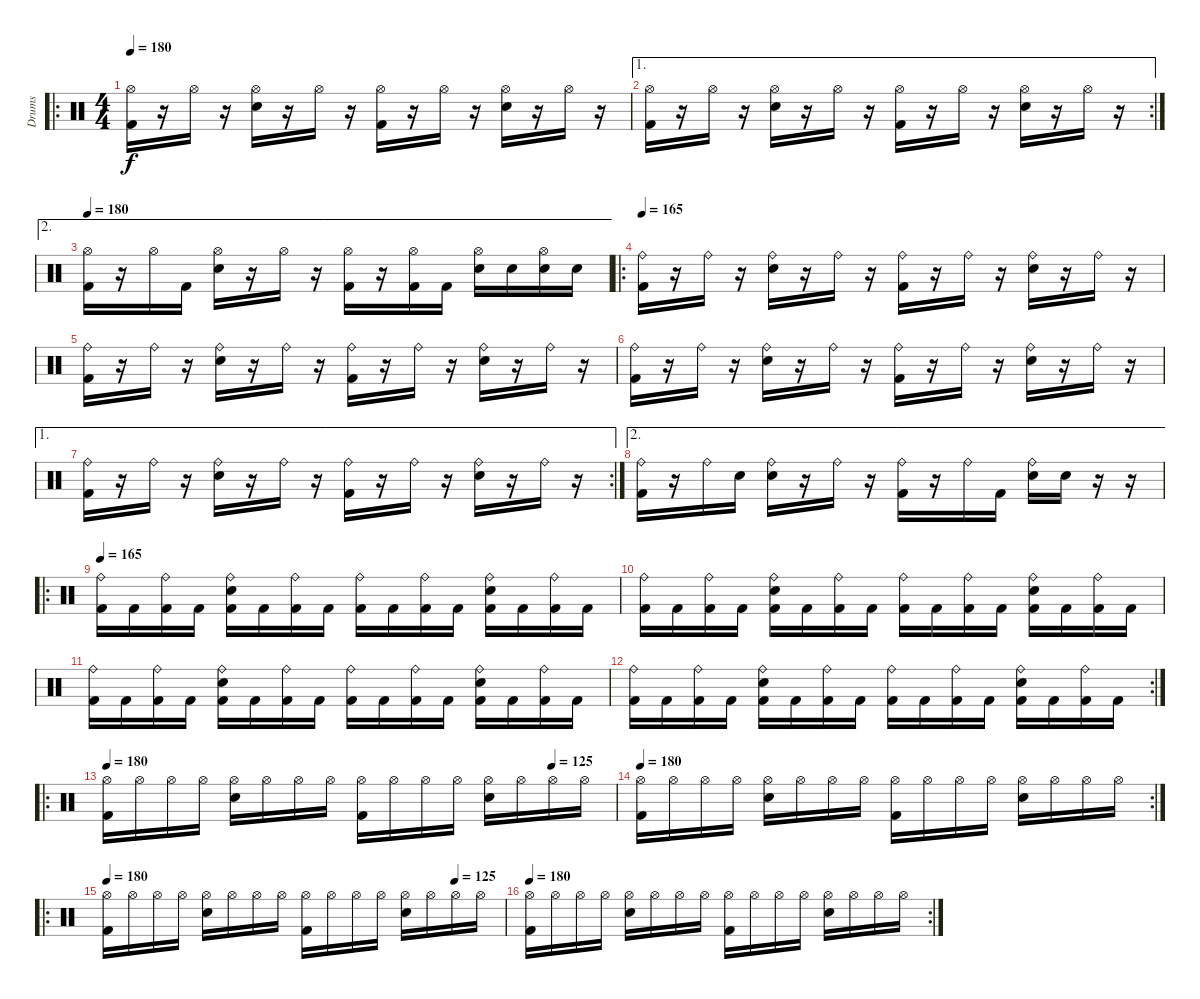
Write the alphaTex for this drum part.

\track ("Drums" "Drums") {instrument percussion}
\staff {score}
\articulation defaults
\ro
\ts (4 4)
\tempo 180
\clef neutral
\ks c
("Hi-Hat (open)" "Kick (hit) 2").16{dy f} r.16 "Hi-Hat (open)".16 r.16 ("Hi-Hat (open)" "Snare (hit) 2").16 r.16 "Hi-Hat (open)".16 r.16 ("Hi-Hat (open)" "Kick (hit) 2").16 r.16 "Hi-Hat (open)".16 r.16 ("Hi-Hat (open)" "Snare (hit) 2").16 r.16 "Hi-Hat (open)".16 r.16 |
\ae 1
\rc 2
("Hi-Hat (open)" "Kick (hit) 2").16 r.16 "Hi-Hat (open)".16 r.16 ("Hi-Hat (open)" "Snare (hit) 2").16 r.16 "Hi-Hat (open)".16 r.16 ("Hi-Hat (open)" "Kick (hit) 2").16 r.16 "Hi-Hat (open)".16 r.16 ("Hi-Hat (open)" "Snare (hit) 2").16 r.16 "Hi-Hat (open)".16 r.16 |
\ae 2
\tempo 180
("Hi-Hat (open)" "Kick (hit) 2").16 r.16 "Hi-Hat (open)".16 "Kick (hit) 2".16 ("Hi-Hat (open)" "Snare (hit) 2").16 r.16 "Hi-Hat (open)".16 r.16 ("Hi-Hat (open)" "Kick (hit) 2").16 r.16 ("Hi-Hat (open)" "Kick (hit) 2").16 "Kick (hit) 2".16 ("Hi-Hat (open)" "Snare (hit) 2").16 "Snare (hit) 2".16 ("Hi-Hat (open)" "Snare (hit) 2").16 "Snare (hit) 2".16 |
\ro
\tempo 165
("Ride (bell)" "Kick (hit) 2").16 r.16 "Ride (bell)".16 r.16 ("Ride (bell)" "Snare (hit) 2").16 r.16 "Ride (bell)".16 r.16 ("Ride (bell)" "Kick (hit) 2").16 r.16 "Ride (bell)".16 r.16 ("Ride (bell)" "Snare (hit) 2").16 r.16 "Ride (bell)".16 r.16 |
("Ride (bell)" "Kick (hit) 2").16 r.16 "Ride (bell)".16 r.16 ("Ride (bell)" "Snare (hit) 2").16 r.16 "Ride (bell)".16 r.16 ("Ride (bell)" "Kick (hit) 2").16 r.16 "Ride (bell)".16 r.16 ("Ride (bell)" "Snare (hit) 2").16 r.16 "Ride (bell)".16 r.16 |
("Ride (bell)" "Kick (hit) 2").16 r.16 "Ride (bell)".16 r.16 ("Ride (bell)" "Snare (hit) 2").16 r.16 "Ride (bell)".16 r.16 ("Ride (bell)" "Kick (hit) 2").16 r.16 "Ride (bell)".16 r.16 ("Ride (bell)" "Snare (hit) 2").16 r.16 "Ride (bell)".16 r.16 |
\ae 1
\rc 2
("Ride (bell)" "Kick (hit) 2").16 r.16 "Ride (bell)".16 r.16 ("Ride (bell)" "Snare (hit) 2").16 r.16 "Ride (bell)".16 r.16 ("Ride (bell)" "Kick (hit) 2").16 r.16 "Ride (bell)".16 r.16 ("Ride (bell)" "Snare (hit) 2").16 r.16 "Ride (bell)".16 r.16 |
\ae 2
("Ride (bell)" "Kick (hit) 2").16 r.16 "Ride (bell)".16 "Snare (hit) 2".16 ("Ride (bell)" "Snare (hit) 2").16 r.16 "Ride (bell)".16 r.16 ("Ride (bell)" "Kick (hit) 2").16 r.16 "Ride (bell)".16 "Kick (hit) 2".16 ("Ride (bell)" "Snare (hit) 2").16 "Snare (hit) 2".16 r.16 r.16 |
\ro
\tempo 165
("Ride (bell)" "Kick (hit) 2").16 "Kick (hit) 2".16 ("Ride (bell)" "Kick (hit) 2").16 "Kick (hit) 2".16 ("Ride (bell)" "Snare (hit) 2" "Kick (hit) 2").16 "Kick (hit) 2".16 ("Ride (bell)" "Kick (hit) 2").16 "Kick (hit) 2".16 ("Ride (bell)" "Kick (hit) 2").16 "Kick (hit) 2".16 ("Ride (bell)" "Kick (hit) 2").16 "Kick (hit) 2".16 ("Ride (bell)" "Snare (hit) 2" "Kick (hit) 2").16 "Kick (hit) 2".16 ("Ride (bell)" "Kick (hit) 2").16 "Kick (hit) 2".16 |
("Ride (bell)" "Kick (hit) 2").16 "Kick (hit) 2".16 ("Ride (bell)" "Kick (hit) 2").16 "Kick (hit) 2".16 ("Ride (bell)" "Snare (hit) 2" "Kick (hit) 2").16 "Kick (hit) 2".16 ("Ride (bell)" "Kick (hit) 2").16 "Kick (hit) 2".16 ("Ride (bell)" "Kick (hit) 2").16 "Kick (hit) 2".16 ("Ride (bell)" "Kick (hit) 2").16 "Kick (hit) 2".16 ("Ride (bell)" "Snare (hit) 2" "Kick (hit) 2").16 "Kick (hit) 2".16 ("Ride (bell)" "Kick (hit) 2").16 "Kick (hit) 2".16 |
("Ride (bell)" "Kick (hit) 2").16 "Kick (hit) 2".16 ("Ride (bell)" "Kick (hit) 2").16 "Kick (hit) 2".16 ("Ride (bell)" "Snare (hit) 2" "Kick (hit) 2").16 "Kick (hit) 2".16 ("Ride (bell)" "Kick (hit) 2").16 "Kick (hit) 2".16 ("Ride (bell)" "Kick (hit) 2").16 "Kick (hit) 2".16 ("Ride (bell)" "Kick (hit) 2").16 "Kick (hit) 2".16 ("Ride (bell)" "Snare (hit) 2" "Kick (hit) 2").16 "Kick (hit) 2".16 ("Ride (bell)" "Kick (hit) 2").16 "Kick (hit) 2".16 |
\rc 2
("Ride (bell)" "Kick (hit) 2").16 "Kick (hit) 2".16 ("Ride (bell)" "Kick (hit) 2").16 "Kick (hit) 2".16 ("Ride (bell)" "Snare (hit) 2" "Kick (hit) 2").16 "Kick (hit) 2".16 ("Ride (bell)" "Kick (hit) 2").16 "Kick (hit) 2".16 ("Ride (bell)" "Kick (hit) 2").16 "Kick (hit) 2".16 ("Ride (bell)" "Kick (hit) 2").16 "Kick (hit) 2".16 ("Ride (bell)" "Snare (hit) 2" "Kick (hit) 2").16 "Kick (hit) 2".16 ("Ride (bell)" "Kick (hit) 2").16 "Kick (hit) 2".16 |
\ro
\tempo 180
\tempo (125 0.875)
("Hi-Hat (open)" "Kick (hit) 2").16 "Hi-Hat (open)".16 "Hi-Hat (open)".16 "Hi-Hat (open)".16 ("Hi-Hat (open)" "Snare (hit) 2").16 "Hi-Hat (open)".16 "Hi-Hat (open)".16 "Hi-Hat (open)".16 ("Hi-Hat (open)" "Kick (hit) 2").16 "Hi-Hat (open)".16 "Hi-Hat (open)".16 "Hi-Hat (open)".16 ("Hi-Hat (open)" "Snare (hit) 2").16 "Hi-Hat (open)".16 "Hi-Hat (open)".16 "Hi-Hat (open)".16 |
\rc 2
\tempo 180
("Hi-Hat (open)" "Kick (hit) 2").16 "Hi-Hat (open)".16 "Hi-Hat (open)".16 "Hi-Hat (open)".16 ("Hi-Hat (open)" "Snare (hit) 2").16 "Hi-Hat (open)".16 "Hi-Hat (open)".16 "Hi-Hat (open)".16 ("Hi-Hat (open)" "Kick (hit) 2").16 "Hi-Hat (open)".16 "Hi-Hat (open)".16 "Hi-Hat (open)".16 ("Hi-Hat (open)" "Snare (hit) 2").16 "Hi-Hat (open)".16 "Hi-Hat (open)".16 "Hi-Hat (open)".16 |
\ro
\tempo 180
\tempo (125 0.875)
("Hi-Hat (open)" "Kick (hit) 2").16 "Hi-Hat (open)".16 "Hi-Hat (open)".16 "Hi-Hat (open)".16 ("Hi-Hat (open)" "Snare (hit) 2").16 "Hi-Hat (open)".16 "Hi-Hat (open)".16 "Hi-Hat (open)".16 ("Hi-Hat (open)" "Kick (hit) 2").16 "Hi-Hat (open)".16 "Hi-Hat (open)".16 "Hi-Hat (open)".16 ("Hi-Hat (open)" "Snare (hit) 2").16 "Hi-Hat (open)".16 "Hi-Hat (open)".16 "Hi-Hat (open)".16 |
\rc 2
\tempo 180
("Hi-Hat (open)" "Kick (hit) 2").16 "Hi-Hat (open)".16 "Hi-Hat (open)".16 "Hi-Hat (open)".16 ("Hi-Hat (open)" "Snare (hit) 2").16 "Hi-Hat (open)".16 "Hi-Hat (open)".16 "Hi-Hat (open)".16 ("Hi-Hat (open)" "Kick (hit) 2").16 "Hi-Hat (open)".16 "Hi-Hat (open)".16 "Hi-Hat (open)".16 ("Hi-Hat (open)" "Snare (hit) 2").16 "Hi-Hat (open)".16 "Hi-Hat (open)".16 "Hi-Hat (open)".16
